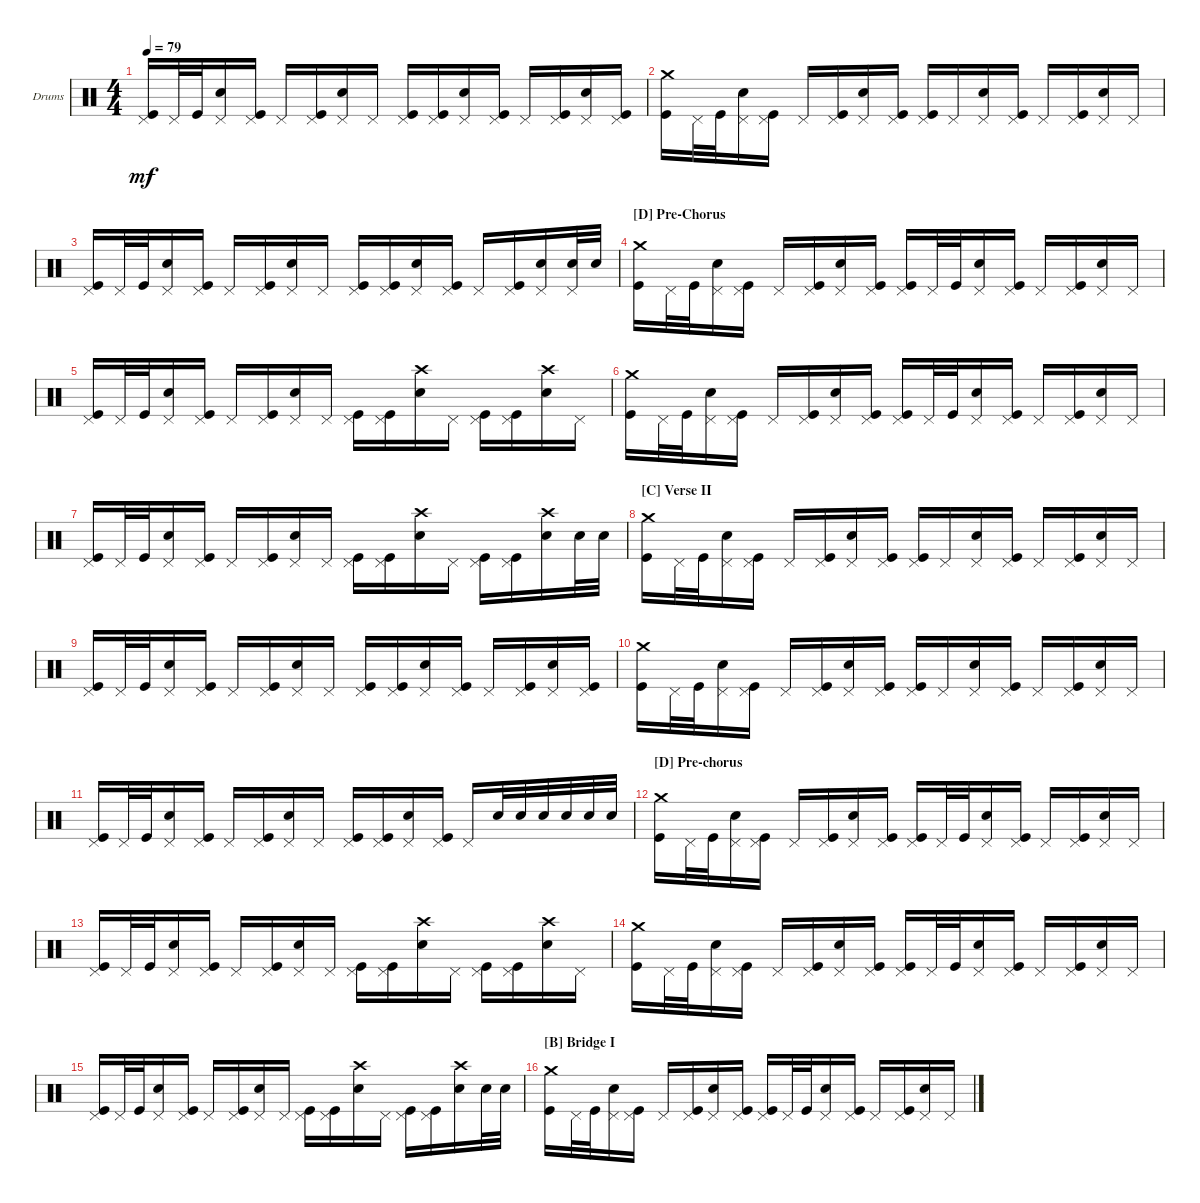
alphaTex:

\defaultSystemsLayout 4
\bracketExtendMode groupsimilarinstruments
\firstSystemTrackNameOrientation horizontal
\otherSystemsTrackNameOrientation horizontal
\track ("Drums" "Drums") {instrument percussion}
\staff {score}
\articulation defaults
\ts (4 4)
\tempo 79
\clef neutral
\ks c
("Kick (hit)" "Pedal Hi-Hat (hit)").16{dy mf} "Pedal Hi-Hat (hit)".32 "Kick (hit)".32{beam merge} ("Pedal Hi-Hat (hit)" "Snare (hit) 2").16 ("Pedal Hi-Hat (hit)" "Kick (hit)").16 "Pedal Hi-Hat (hit)".16 ("Pedal Hi-Hat (hit)" "Kick (hit)").16{beam merge} ("Pedal Hi-Hat (hit)" "Snare (hit) 2").16 "Pedal Hi-Hat (hit)".16 ("Kick (hit)" "Pedal Hi-Hat (hit)").16 ("Pedal Hi-Hat (hit)" "Kick (hit)").16{beam merge} ("Pedal Hi-Hat (hit)" "Snare (hit) 2").16 ("Pedal Hi-Hat (hit)" "Kick (hit)").16 "Pedal Hi-Hat (hit)".16 ("Pedal Hi-Hat (hit)" "Kick (hit)").16{beam merge} ("Pedal Hi-Hat (hit)" "Snare (hit) 2").16 ("Pedal Hi-Hat (hit)" "Kick (hit)").16 |
("Kick (hit)" "Crash medium (hit)").16 "Pedal Hi-Hat (hit)".32 "Kick (hit)".32{beam merge} ("Pedal Hi-Hat (hit)" "Snare (hit) 2").16 ("Pedal Hi-Hat (hit)" "Kick (hit)").16 "Pedal Hi-Hat (hit)".16 ("Pedal Hi-Hat (hit)" "Kick (hit)").16{beam merge} ("Pedal Hi-Hat (hit)" "Snare (hit) 2").16 ("Pedal Hi-Hat (hit)" "Kick (hit)").16 ("Kick (hit)" "Pedal Hi-Hat (hit)").16 "Pedal Hi-Hat (hit)".16{beam merge} ("Pedal Hi-Hat (hit)" "Snare (hit) 2").16 ("Pedal Hi-Hat (hit)" "Kick (hit)").16 "Pedal Hi-Hat (hit)".16 ("Pedal Hi-Hat (hit)" "Kick (hit)").16{beam merge} ("Pedal Hi-Hat (hit)" "Snare (hit) 2").16 "Pedal Hi-Hat (hit)".16 |
("Kick (hit)" "Pedal Hi-Hat (hit)").16 "Pedal Hi-Hat (hit)".32 "Kick (hit)".32{beam merge} ("Pedal Hi-Hat (hit)" "Snare (hit) 2").16 ("Pedal Hi-Hat (hit)" "Kick (hit)").16 "Pedal Hi-Hat (hit)".16 ("Pedal Hi-Hat (hit)" "Kick (hit)").16{beam merge} ("Pedal Hi-Hat (hit)" "Snare (hit) 2").16 "Pedal Hi-Hat (hit)".16 ("Kick (hit)" "Pedal Hi-Hat (hit)").16 ("Pedal Hi-Hat (hit)" "Kick (hit)").16{beam merge} ("Pedal Hi-Hat (hit)" "Snare (hit) 2").16 ("Pedal Hi-Hat (hit)" "Kick (hit)").16 "Pedal Hi-Hat (hit)".16 ("Pedal Hi-Hat (hit)" "Kick (hit)").16{beam merge} ("Snare (hit) 2" "Pedal Hi-Hat (hit)").16 ("Pedal Hi-Hat (hit)" "Snare (hit) 2").32 "Snare (hit) 2".32 |
\section ("D" "Pre-Chorus")
("Kick (hit)" "Crash medium (hit)").16 "Pedal Hi-Hat (hit)".32 "Kick (hit)".32{beam merge} ("Pedal Hi-Hat (hit)" "Snare (hit) 2").16 ("Pedal Hi-Hat (hit)" "Kick (hit)").16 "Pedal Hi-Hat (hit)".16 ("Pedal Hi-Hat (hit)" "Kick (hit)").16{beam merge} ("Pedal Hi-Hat (hit)" "Snare (hit) 2").16 ("Pedal Hi-Hat (hit)" "Kick (hit)").16 ("Kick (hit)" "Pedal Hi-Hat (hit)").16 "Pedal Hi-Hat (hit)".32 "Kick (hit)".32{beam merge} ("Pedal Hi-Hat (hit)" "Snare (hit) 2").16 ("Pedal Hi-Hat (hit)" "Kick (hit)").16 "Pedal Hi-Hat (hit)".16 ("Pedal Hi-Hat (hit)" "Kick (hit)").16{beam merge} ("Pedal Hi-Hat (hit)" "Snare (hit) 2").16 "Pedal Hi-Hat (hit)".16 |
("Kick (hit)" "Pedal Hi-Hat (hit)").16 "Pedal Hi-Hat (hit)".32 "Kick (hit)".32 ("Pedal Hi-Hat (hit)" "Snare (hit) 2").16 ("Pedal Hi-Hat (hit)" "Kick (hit)").16 "Pedal Hi-Hat (hit)".16 ("Pedal Hi-Hat (hit)" "Kick (hit)").16 ("Pedal Hi-Hat (hit)" "Snare (hit) 2").16 "Pedal Hi-Hat (hit)".16 ("Kick (hit)" "Pedal Hi-Hat (hit)").16 ("Pedal Hi-Hat (hit)" "Kick (hit)").16{beam merge} ("Snare (hit) 2" "Crash high (hit)").16 "Pedal Hi-Hat (hit)".16 ("Pedal Hi-Hat (hit)" "Kick (hit)").16 ("Pedal Hi-Hat (hit)" "Kick (hit)").16{beam merge} ("Snare (hit) 2" "Crash high (hit)").16 "Pedal Hi-Hat (hit)".16 |
("Kick (hit)" "Crash medium (hit)").16 "Pedal Hi-Hat (hit)".32 "Kick (hit)".32{beam merge} ("Pedal Hi-Hat (hit)" "Snare (hit) 2").16 ("Pedal Hi-Hat (hit)" "Kick (hit)").16 "Pedal Hi-Hat (hit)".16 ("Pedal Hi-Hat (hit)" "Kick (hit)").16{beam merge} ("Pedal Hi-Hat (hit)" "Snare (hit) 2").16 ("Pedal Hi-Hat (hit)" "Kick (hit)").16 ("Kick (hit)" "Pedal Hi-Hat (hit)").16 "Pedal Hi-Hat (hit)".32 "Kick (hit)".32{beam merge} ("Pedal Hi-Hat (hit)" "Snare (hit) 2").16 ("Pedal Hi-Hat (hit)" "Kick (hit)").16 "Pedal Hi-Hat (hit)".16 ("Pedal Hi-Hat (hit)" "Kick (hit)").16{beam merge} ("Pedal Hi-Hat (hit)" "Snare (hit) 2").16 "Pedal Hi-Hat (hit)".16 |
("Kick (hit)" "Pedal Hi-Hat (hit)").16 "Pedal Hi-Hat (hit)".32 "Kick (hit)".32 ("Pedal Hi-Hat (hit)" "Snare (hit) 2").16 ("Pedal Hi-Hat (hit)" "Kick (hit)").16 "Pedal Hi-Hat (hit)".16 ("Pedal Hi-Hat (hit)" "Kick (hit)").16 ("Pedal Hi-Hat (hit)" "Snare (hit) 2").16 "Pedal Hi-Hat (hit)".16 ("Kick (hit)" "Pedal Hi-Hat (hit)").16 ("Pedal Hi-Hat (hit)" "Kick (hit)").16{beam merge} ("Snare (hit) 2" "Crash high (hit)").16 "Pedal Hi-Hat (hit)".16 ("Pedal Hi-Hat (hit)" "Kick (hit)").16 ("Pedal Hi-Hat (hit)" "Kick (hit)").16{beam merge} ("Snare (hit) 2" "Crash high (hit)").16 "Snare (hit) 2".32 "Snare (hit) 2".32 |
\section ("C" "Verse II")
("Kick (hit)" "Crash medium (hit)").16 "Pedal Hi-Hat (hit)".32 "Kick (hit)".32{beam merge} ("Pedal Hi-Hat (hit)" "Snare (hit) 2").16 ("Pedal Hi-Hat (hit)" "Kick (hit)").16 "Pedal Hi-Hat (hit)".16 ("Pedal Hi-Hat (hit)" "Kick (hit)").16{beam merge} ("Pedal Hi-Hat (hit)" "Snare (hit) 2").16 ("Pedal Hi-Hat (hit)" "Kick (hit)").16 ("Kick (hit)" "Pedal Hi-Hat (hit)").16 "Pedal Hi-Hat (hit)".16{beam merge} ("Pedal Hi-Hat (hit)" "Snare (hit) 2").16 ("Pedal Hi-Hat (hit)" "Kick (hit)").16 "Pedal Hi-Hat (hit)".16 ("Pedal Hi-Hat (hit)" "Kick (hit)").16{beam merge} ("Pedal Hi-Hat (hit)" "Snare (hit) 2").16 "Pedal Hi-Hat (hit)".16 |
("Kick (hit)" "Pedal Hi-Hat (hit)").16 "Pedal Hi-Hat (hit)".32 "Kick (hit)".32{beam merge} ("Pedal Hi-Hat (hit)" "Snare (hit) 2").16 ("Pedal Hi-Hat (hit)" "Kick (hit)").16 "Pedal Hi-Hat (hit)".16 ("Pedal Hi-Hat (hit)" "Kick (hit)").16{beam merge} ("Pedal Hi-Hat (hit)" "Snare (hit) 2").16 "Pedal Hi-Hat (hit)".16 ("Kick (hit)" "Pedal Hi-Hat (hit)").16 ("Pedal Hi-Hat (hit)" "Kick (hit)").16{beam merge} ("Pedal Hi-Hat (hit)" "Snare (hit) 2").16 ("Pedal Hi-Hat (hit)" "Kick (hit)").16 "Pedal Hi-Hat (hit)".16 ("Pedal Hi-Hat (hit)" "Kick (hit)").16{beam merge} ("Pedal Hi-Hat (hit)" "Snare (hit) 2").16 ("Pedal Hi-Hat (hit)" "Kick (hit)").16 |
("Kick (hit)" "Crash medium (hit)").16 "Pedal Hi-Hat (hit)".32 "Kick (hit)".32{beam merge} ("Pedal Hi-Hat (hit)" "Snare (hit) 2").16 ("Pedal Hi-Hat (hit)" "Kick (hit)").16 "Pedal Hi-Hat (hit)".16 ("Pedal Hi-Hat (hit)" "Kick (hit)").16{beam merge} ("Pedal Hi-Hat (hit)" "Snare (hit) 2").16 ("Pedal Hi-Hat (hit)" "Kick (hit)").16 ("Kick (hit)" "Pedal Hi-Hat (hit)").16 "Pedal Hi-Hat (hit)".16{beam merge} ("Pedal Hi-Hat (hit)" "Snare (hit) 2").16 ("Pedal Hi-Hat (hit)" "Kick (hit)").16 "Pedal Hi-Hat (hit)".16 ("Pedal Hi-Hat (hit)" "Kick (hit)").16{beam merge} ("Pedal Hi-Hat (hit)" "Snare (hit) 2").16 "Pedal Hi-Hat (hit)".16 |
("Kick (hit)" "Pedal Hi-Hat (hit)").16 "Pedal Hi-Hat (hit)".32 "Kick (hit)".32{beam merge} ("Pedal Hi-Hat (hit)" "Snare (hit) 2").16 ("Pedal Hi-Hat (hit)" "Kick (hit)").16 "Pedal Hi-Hat (hit)".16 ("Pedal Hi-Hat (hit)" "Kick (hit)").16{beam merge} ("Pedal Hi-Hat (hit)" "Snare (hit) 2").16 "Pedal Hi-Hat (hit)".16 ("Kick (hit)" "Pedal Hi-Hat (hit)").16 ("Pedal Hi-Hat (hit)" "Kick (hit)").16{beam merge} ("Pedal Hi-Hat (hit)" "Snare (hit) 2").16 ("Pedal Hi-Hat (hit)" "Kick (hit)").16 "Pedal Hi-Hat (hit)".16 "Snare (hit) 2".32{beam merge} "Snare (hit) 2".32{beam merge} "Snare (hit) 2".32 "Snare (hit) 2".32 "Snare (hit) 2".32 "Snare (hit) 2".32 |
\section ("D" "Pre-chorus")
("Kick (hit)" "Crash medium (hit)").16 "Pedal Hi-Hat (hit)".32 "Kick (hit)".32{beam merge} ("Pedal Hi-Hat (hit)" "Snare (hit) 2").16 ("Pedal Hi-Hat (hit)" "Kick (hit)").16 "Pedal Hi-Hat (hit)".16 ("Pedal Hi-Hat (hit)" "Kick (hit)").16{beam merge} ("Pedal Hi-Hat (hit)" "Snare (hit) 2").16 ("Pedal Hi-Hat (hit)" "Kick (hit)").16 ("Kick (hit)" "Pedal Hi-Hat (hit)").16 "Pedal Hi-Hat (hit)".32 "Kick (hit)".32{beam merge} ("Pedal Hi-Hat (hit)" "Snare (hit) 2").16 ("Pedal Hi-Hat (hit)" "Kick (hit)").16 "Pedal Hi-Hat (hit)".16 ("Pedal Hi-Hat (hit)" "Kick (hit)").16{beam merge} ("Pedal Hi-Hat (hit)" "Snare (hit) 2").16 "Pedal Hi-Hat (hit)".16 |
("Kick (hit)" "Pedal Hi-Hat (hit)").16 "Pedal Hi-Hat (hit)".32 "Kick (hit)".32 ("Pedal Hi-Hat (hit)" "Snare (hit) 2").16 ("Pedal Hi-Hat (hit)" "Kick (hit)").16 "Pedal Hi-Hat (hit)".16 ("Pedal Hi-Hat (hit)" "Kick (hit)").16 ("Pedal Hi-Hat (hit)" "Snare (hit) 2").16 "Pedal Hi-Hat (hit)".16 ("Kick (hit)" "Pedal Hi-Hat (hit)").16 ("Pedal Hi-Hat (hit)" "Kick (hit)").16{beam merge} ("Snare (hit) 2" "Crash high (hit)").16 "Pedal Hi-Hat (hit)".16 ("Pedal Hi-Hat (hit)" "Kick (hit)").16 ("Pedal Hi-Hat (hit)" "Kick (hit)").16{beam merge} ("Snare (hit) 2" "Crash high (hit)").16 "Pedal Hi-Hat (hit)".16 |
("Kick (hit)" "Crash medium (hit)").16 "Pedal Hi-Hat (hit)".32 "Kick (hit)".32{beam merge} ("Pedal Hi-Hat (hit)" "Snare (hit) 2").16 ("Pedal Hi-Hat (hit)" "Kick (hit)").16 "Pedal Hi-Hat (hit)".16 ("Pedal Hi-Hat (hit)" "Kick (hit)").16{beam merge} ("Pedal Hi-Hat (hit)" "Snare (hit) 2").16 ("Pedal Hi-Hat (hit)" "Kick (hit)").16 ("Kick (hit)" "Pedal Hi-Hat (hit)").16 "Pedal Hi-Hat (hit)".32 "Kick (hit)".32{beam merge} ("Pedal Hi-Hat (hit)" "Snare (hit) 2").16 ("Pedal Hi-Hat (hit)" "Kick (hit)").16 "Pedal Hi-Hat (hit)".16 ("Pedal Hi-Hat (hit)" "Kick (hit)").16{beam merge} ("Pedal Hi-Hat (hit)" "Snare (hit) 2").16 "Pedal Hi-Hat (hit)".16 |
("Kick (hit)" "Pedal Hi-Hat (hit)").16 "Pedal Hi-Hat (hit)".32 "Kick (hit)".32 ("Pedal Hi-Hat (hit)" "Snare (hit) 2").16 ("Pedal Hi-Hat (hit)" "Kick (hit)").16 "Pedal Hi-Hat (hit)".16 ("Pedal Hi-Hat (hit)" "Kick (hit)").16 ("Pedal Hi-Hat (hit)" "Snare (hit) 2").16 "Pedal Hi-Hat (hit)".16 ("Kick (hit)" "Pedal Hi-Hat (hit)").16 ("Pedal Hi-Hat (hit)" "Kick (hit)").16{beam merge} ("Snare (hit) 2" "Crash high (hit)").16 "Pedal Hi-Hat (hit)".16 ("Pedal Hi-Hat (hit)" "Kick (hit)").16 ("Pedal Hi-Hat (hit)" "Kick (hit)").16{beam merge} ("Snare (hit) 2" "Crash high (hit)").16 "Snare (hit) 2".32 "Snare (hit) 2".32 |
\section ("B" "Bridge I")
("Kick (hit)" "Crash medium (hit)").16 "Pedal Hi-Hat (hit)".32 "Kick (hit)".32{beam merge} ("Pedal Hi-Hat (hit)" "Snare (hit) 2").16 ("Pedal Hi-Hat (hit)" "Kick (hit)").16 "Pedal Hi-Hat (hit)".16 ("Pedal Hi-Hat (hit)" "Kick (hit)").16{beam merge} ("Pedal Hi-Hat (hit)" "Snare (hit) 2").16 ("Pedal Hi-Hat (hit)" "Kick (hit)").16 ("Kick (hit)" "Pedal Hi-Hat (hit)").16 "Pedal Hi-Hat (hit)".32 "Kick (hit)".32{beam merge} ("Pedal Hi-Hat (hit)" "Snare (hit) 2").16 ("Pedal Hi-Hat (hit)" "Kick (hit)").16 "Pedal Hi-Hat (hit)".16 ("Pedal Hi-Hat (hit)" "Kick (hit)").16{beam merge} ("Pedal Hi-Hat (hit)" "Snare (hit) 2").16 "Pedal Hi-Hat (hit)".16
